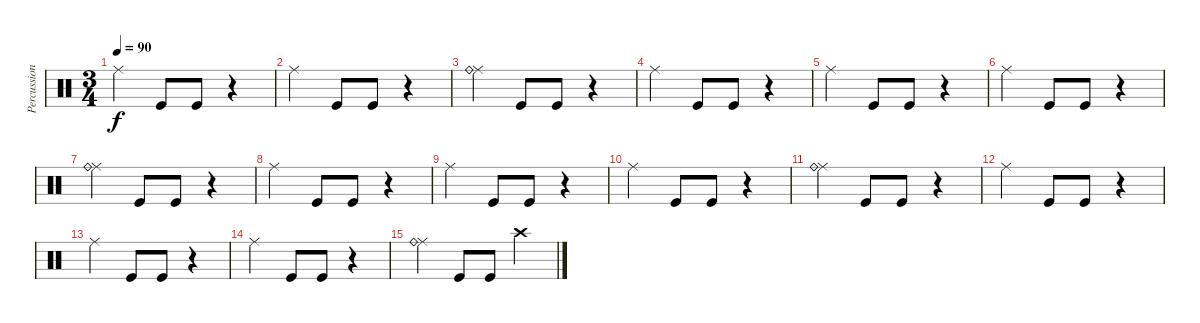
\track ("Percussion" "Percussion") {instrument percussion}
\staff {score}
\articulation defaults
\ts (3 4)
\tempo 90
\clef neutral
\ks c "Ride (middle)".4{dy f} "Kick (hit)".8 "Kick (hit)".8
r.4 |
"Ride (middle)".4 "Kick (hit)".8 "Kick (hit)".8 r.4 |
("Ride (middle)" "Ride (bell)").4 "Kick (hit)".8 "Kick (hit)".8 r.4 |
"Ride (middle)".4 "Kick (hit)".8 "Kick (hit)".8 r.4 |
"Ride (middle)".4 "Kick (hit)".8 "Kick (hit)".8 r.4 |
"Ride (middle)".4 "Kick (hit)".8 "Kick (hit)".8 r.4 |
("Ride (middle)" "Ride (bell)").4 "Kick (hit)".8 "Kick (hit)".8 r.4 |
"Ride (middle)".4 "Kick (hit)".8 "Kick (hit)".8 r.4 |
"Ride (middle)".4 "Kick (hit)".8 "Kick (hit)".8 r.4 |
"Ride (middle)".4 "Kick (hit)".8 "Kick (hit)".8 r.4 |
("Ride (middle)" "Ride (bell)").4 "Kick (hit)".8 "Kick (hit)".8 r.4 |
"Ride (middle)".4 "Kick (hit)".8 "Kick (hit)".8 r.4 |
"Ride (middle)".4 "Kick (hit)".8 "Kick (hit)".8 r.4 |
"Ride (middle)".4 "Kick (hit)".8 "Kick (hit)".8 r.4 |
("Ride (middle)" "Ride (bell)").4 "Kick (hit)".8 "Kick (hit)".8 "Crash high (hit)".4
